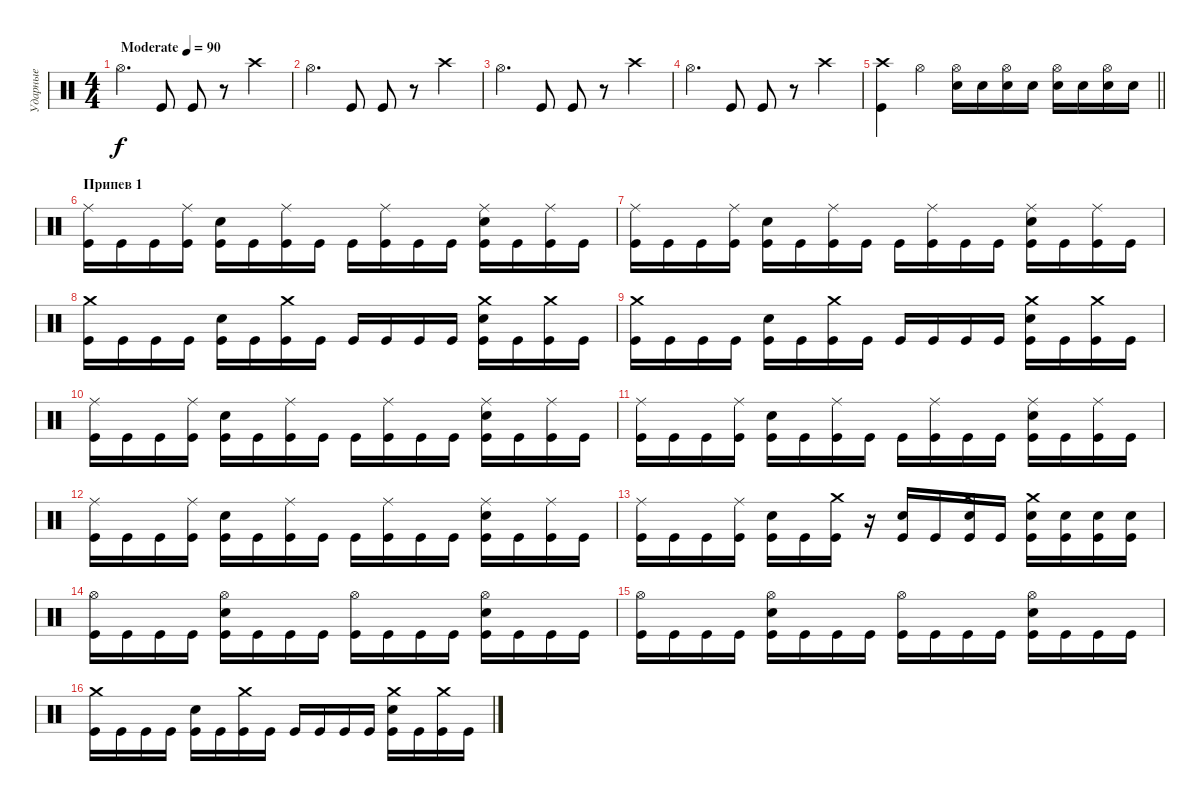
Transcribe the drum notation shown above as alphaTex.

\track ("Ударные" "Ударные") {instrument percussion}
\staff {score}
\articulation defaults
\ts (4 4)
\tempo (90 "Moderate")
\clef neutral
\ks c "Hi-Hat (open)".4{d dy f} "Kick (hit)".8 "Kick (hit)".8
r.8 "Crash high (hit)".4 |
"Hi-Hat (open)".4{d} "Kick (hit)".8 "Kick (hit)".8 r.8 "Crash high (hit)".4 |
"Hi-Hat (open)".4{d} "Kick (hit)".8 "Kick (hit)".8 r.8 "Crash high (hit)".4 |
"Hi-Hat (open)".4{d} "Kick (hit)".8 "Kick (hit)".8 r.8 "Crash high (hit)".4 |
\barLineRight lightlight
("Kick (hit)" "Crash high (hit)").4 "Hi-Hat (open)".4 ("Hi-Hat (open)" "Electric Snare (hit)").16 "Electric Snare (hit)".16 ("Hi-Hat (open)" "Electric Snare (hit)").16 "Electric Snare (hit)".16 ("Hi-Hat (open)" "Electric Snare (hit)").16 "Electric Snare (hit)".16 ("Hi-Hat (open)" "Electric Snare (hit)").16 "Electric Snare (hit)".16 |
\section ("" "Припев 1")
("Kick (hit)" "Ride (middle)").16 "Kick (hit)".16 "Kick (hit)".16 ("Kick (hit)" "Ride (middle)").16 ("Kick (hit)" "Electric Snare (hit)").16 "Kick (hit)".16 ("Kick (hit)" "Ride (middle)").16 "Kick (hit)".16 "Kick (hit)".16 ("Kick (hit)" "Ride (middle)").16 "Kick (hit)".16 "Kick (hit)".16 ("Kick (hit)" "Electric Snare (hit)" "Ride (middle)").16 "Kick (hit)".16 ("Kick (hit)" "Ride (middle)").16 "Kick (hit)".16 |
("Kick (hit)" "Ride (middle)").16 "Kick (hit)".16 "Kick (hit)".16 ("Kick (hit)" "Ride (middle)").16 ("Kick (hit)" "Electric Snare (hit)").16 "Kick (hit)".16 ("Kick (hit)" "Ride (middle)").16 "Kick (hit)".16 "Kick (hit)".16 ("Kick (hit)" "Ride (middle)").16 "Kick (hit)".16 "Kick (hit)".16 ("Kick (hit)" "Electric Snare (hit)" "Ride (middle)").16 "Kick (hit)".16 ("Kick (hit)" "Ride (middle)").16 "Kick (hit)".16 |
("Kick (hit)" "Crash medium (hit)").16 "Kick (hit)".16 "Kick (hit)".16 "Kick (hit)".16 ("Kick (hit)" "Electric Snare (hit)").16 "Kick (hit)".16 ("Kick (hit)" "Crash medium (hit)").16 "Kick (hit)".16 "Kick (hit)".16 "Kick (hit)".16 "Kick (hit)".16 "Kick (hit)".16 ("Kick (hit)" "Electric Snare (hit)" "Crash medium (hit)").16 "Kick (hit)".16 ("Kick (hit)" "Crash medium (hit)").16 "Kick (hit)".16 |
("Kick (hit)" "Crash medium (hit)").16 "Kick (hit)".16 "Kick (hit)".16 "Kick (hit)".16 ("Kick (hit)" "Electric Snare (hit)").16 "Kick (hit)".16 ("Kick (hit)" "Crash medium (hit)").16 "Kick (hit)".16 "Kick (hit)".16 "Kick (hit)".16 "Kick (hit)".16 "Kick (hit)".16 ("Kick (hit)" "Electric Snare (hit)" "Crash medium (hit)").16 "Kick (hit)".16 ("Kick (hit)" "Crash medium (hit)").16 "Kick (hit)".16 |
("Kick (hit)" "Ride (middle)").16 "Kick (hit)".16 "Kick (hit)".16 ("Kick (hit)" "Ride (middle)").16 ("Kick (hit)" "Electric Snare (hit)").16 "Kick (hit)".16 ("Kick (hit)" "Ride (middle)").16 "Kick (hit)".16 "Kick (hit)".16 ("Kick (hit)" "Ride (middle)").16 "Kick (hit)".16 "Kick (hit)".16 ("Kick (hit)" "Electric Snare (hit)" "Ride (middle)").16 "Kick (hit)".16 ("Kick (hit)" "Ride (middle)").16 "Kick (hit)".16 |
("Kick (hit)" "Ride (middle)").16 "Kick (hit)".16 "Kick (hit)".16 ("Kick (hit)" "Ride (middle)").16 ("Kick (hit)" "Electric Snare (hit)").16 "Kick (hit)".16 ("Kick (hit)" "Ride (middle)").16 "Kick (hit)".16 "Kick (hit)".16 ("Kick (hit)" "Ride (middle)").16 "Kick (hit)".16 "Kick (hit)".16 ("Kick (hit)" "Electric Snare (hit)" "Ride (middle)").16 "Kick (hit)".16 ("Kick (hit)" "Ride (middle)").16 "Kick (hit)".16 |
("Kick (hit)" "Ride (middle)").16 "Kick (hit)".16 "Kick (hit)".16 ("Kick (hit)" "Ride (middle)").16 ("Kick (hit)" "Electric Snare (hit)").16 "Kick (hit)".16 ("Kick (hit)" "Ride (middle)").16 "Kick (hit)".16 "Kick (hit)".16 ("Kick (hit)" "Ride (middle)").16 "Kick (hit)".16 "Kick (hit)".16 ("Kick (hit)" "Electric Snare (hit)" "Ride (middle)").16 "Kick (hit)".16 ("Kick (hit)" "Ride (middle)").16 "Kick (hit)".16 |
("Kick (hit)" "Ride (middle)").16 "Kick (hit)".16 "Kick (hit)".16 ("Kick (hit)" "Ride (middle)").16 ("Kick (hit)" "Electric Snare (hit)").16 "Kick (hit)".16 ("Kick (hit)" "Crash medium (hit)").16 r.16 ("Kick (hit)" "Snare (hit) 2").16 "Kick (hit)".16 ("Kick (hit)" "Crash medium (hit)" "Snare (hit) 2").16 "Kick (hit)".16 ("Kick (hit)" "Electric Snare (hit)" "Crash medium (hit)").16 ("Kick (hit)" "Snare (hit) 2").16 ("Kick (hit)" "Snare (hit) 2").16 ("Kick (hit)" "Snare (hit) 2").16 |
("Kick (hit)" "Hi-Hat (open)").16 "Kick (hit)".16 "Kick (hit)".16 "Kick (hit)".16 ("Kick (hit)" "Electric Snare (hit)" "Hi-Hat (open)").16 "Kick (hit)".16 "Kick (hit)".16 "Kick (hit)".16 ("Kick (hit)" "Hi-Hat (open)").16 "Kick (hit)".16 "Kick (hit)".16 "Kick (hit)".16 ("Kick (hit)" "Electric Snare (hit)" "Hi-Hat (open)").16 "Kick (hit)".16 "Kick (hit)".16 "Kick (hit)".16 |
("Kick (hit)" "Hi-Hat (open)").16 "Kick (hit)".16 "Kick (hit)".16 "Kick (hit)".16 ("Kick (hit)" "Electric Snare (hit)" "Hi-Hat (open)").16 "Kick (hit)".16 "Kick (hit)".16 "Kick (hit)".16 ("Kick (hit)" "Hi-Hat (open)").16 "Kick (hit)".16 "Kick (hit)".16 "Kick (hit)".16 ("Kick (hit)" "Electric Snare (hit)" "Hi-Hat (open)").16 "Kick (hit)".16 "Kick (hit)".16 "Kick (hit)".16 |
("Kick (hit)" "Crash medium (hit)").16 "Kick (hit)".16 "Kick (hit)".16 "Kick (hit)".16 ("Kick (hit)" "Electric Snare (hit)").16 "Kick (hit)".16 ("Kick (hit)" "Crash medium (hit)").16 "Kick (hit)".16 "Kick (hit)".16 "Kick (hit)".16 "Kick (hit)".16 "Kick (hit)".16 ("Kick (hit)" "Electric Snare (hit)" "Crash medium (hit)").16 "Kick (hit)".16 ("Kick (hit)" "Crash medium (hit)").16 "Kick (hit)".16
